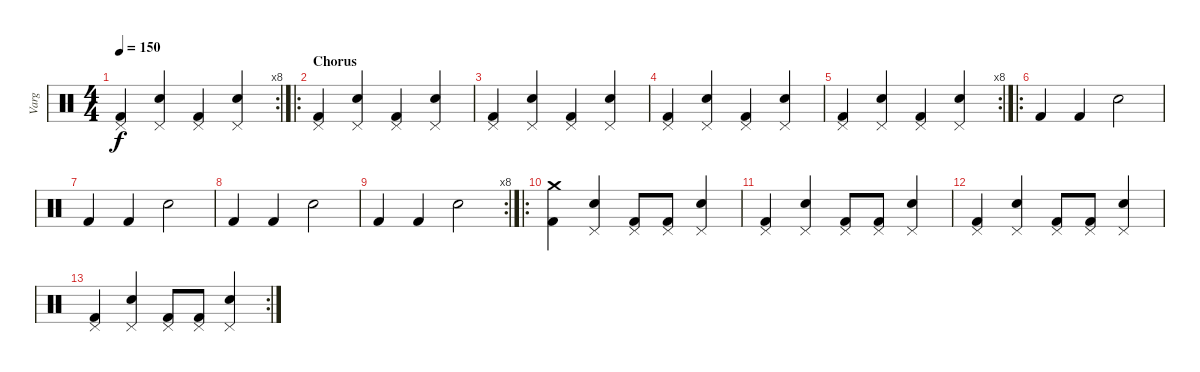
\track ("Varg" "Varg") {instrument percussion}
\staff {score}
\articulation defaults
\rc 8
\ts (4 4)
\tempo 150
\clef neutral
\ks c
("Kick (hit) 2" "Pedal Hi-Hat (hit)").4{dy f} ("Snare (hit) 2" "Pedal Hi-Hat (hit)").4 ("Kick (hit) 2" "Pedal Hi-Hat (hit)").4 ("Snare (hit) 2" "Pedal Hi-Hat (hit)").4 |
\ro
\section ("" "Chorus")
("Kick (hit) 2" "Pedal Hi-Hat (hit)").4 ("Snare (hit) 2" "Pedal Hi-Hat (hit)").4 ("Kick (hit) 2" "Pedal Hi-Hat (hit)").4 ("Snare (hit) 2" "Pedal Hi-Hat (hit)").4 |
("Kick (hit) 2" "Pedal Hi-Hat (hit)").4 ("Snare (hit) 2" "Pedal Hi-Hat (hit)").4 ("Kick (hit) 2" "Pedal Hi-Hat (hit)").4 ("Snare (hit) 2" "Pedal Hi-Hat (hit)").4 |
("Kick (hit) 2" "Pedal Hi-Hat (hit)").4 ("Snare (hit) 2" "Pedal Hi-Hat (hit)").4 ("Kick (hit) 2" "Pedal Hi-Hat (hit)").4 ("Snare (hit) 2" "Pedal Hi-Hat (hit)").4 |
\rc 8
("Kick (hit) 2" "Pedal Hi-Hat (hit)").4 ("Snare (hit) 2" "Pedal Hi-Hat (hit)").4 ("Kick (hit) 2" "Pedal Hi-Hat (hit)").4 ("Snare (hit) 2" "Pedal Hi-Hat (hit)").4 |
\ro "Kick (hit) 2".4 "Kick (hit) 2".4 "Snare (hit) 2".2
|
"Kick (hit) 2".4 "Kick (hit) 2".4 "Snare (hit) 2".2 |
"Kick (hit) 2".4 "Kick (hit) 2".4 "Snare (hit) 2".2 |
\rc 8 "Kick (hit) 2".4 "Kick (hit) 2".4 "Snare (hit) 2".2
|
\ro
("Crash medium (hit)" "Kick (hit) 2").4 ("Snare (hit) 2" "Pedal Hi-Hat (hit)").4 ("Kick (hit) 2" "Pedal Hi-Hat (hit)").8 ("Kick (hit) 2" "Pedal Hi-Hat (hit)").8 ("Snare (hit) 2" "Pedal Hi-Hat (hit)").4 |
("Pedal Hi-Hat (hit)" "Kick (hit) 2").4 ("Snare (hit) 2" "Pedal Hi-Hat (hit)").4 ("Kick (hit) 2" "Pedal Hi-Hat (hit)").8 ("Kick (hit) 2" "Pedal Hi-Hat (hit)").8 ("Snare (hit) 2" "Pedal Hi-Hat (hit)").4 |
("Pedal Hi-Hat (hit)" "Kick (hit) 2").4 ("Snare (hit) 2" "Pedal Hi-Hat (hit)").4 ("Kick (hit) 2" "Pedal Hi-Hat (hit)").8 ("Kick (hit) 2" "Pedal Hi-Hat (hit)").8 ("Snare (hit) 2" "Pedal Hi-Hat (hit)").4 |
\rc 2
("Pedal Hi-Hat (hit)" "Kick (hit) 2").4 ("Snare (hit) 2" "Pedal Hi-Hat (hit)").4 ("Kick (hit) 2" "Pedal Hi-Hat (hit)").8 ("Kick (hit) 2" "Pedal Hi-Hat (hit)").8 ("Snare (hit) 2" "Pedal Hi-Hat (hit)").4
